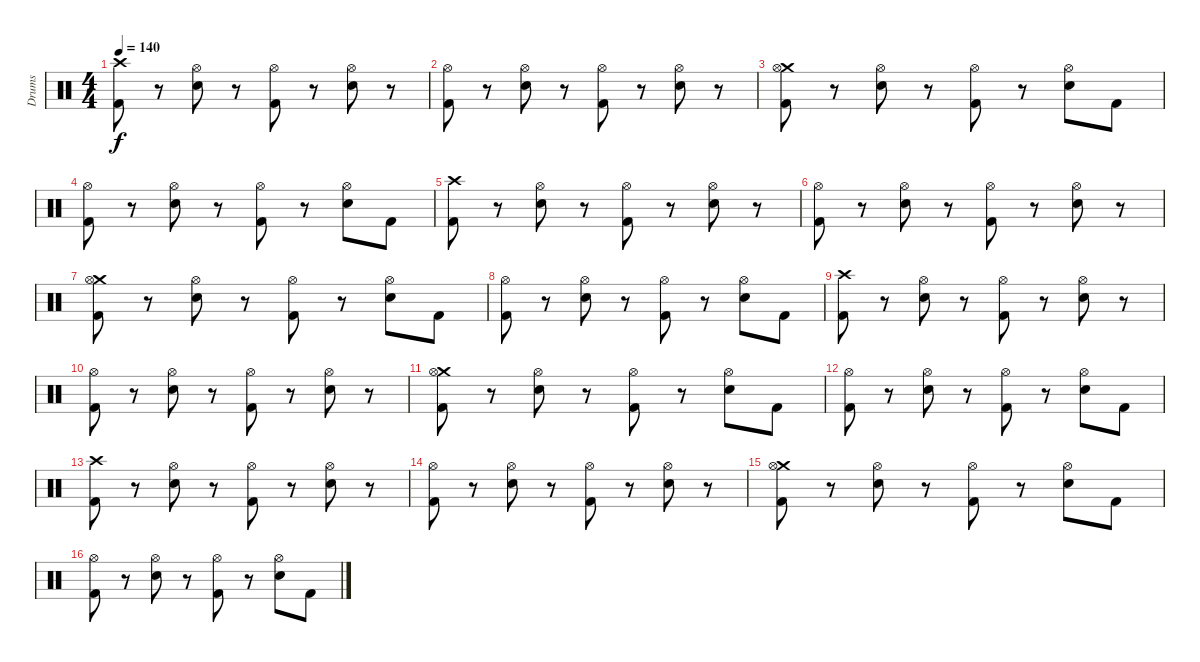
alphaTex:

\track ("Drums" "Drums") {instrument percussion}
\staff {score}
\articulation defaults
\ts (4 4)
\tempo 140
\clef neutral
\ks c
("Crash high (hit)" "Kick (hit) 2").8{dy f} r.8 ("Snare (hit) 2" "Hi-Hat (open)").8 r.8 ("Hi-Hat (open)" "Kick (hit) 2").8 r.8 ("Snare (hit) 2" "Hi-Hat (open)").8 r.8 |
("Hi-Hat (open)" "Kick (hit) 2").8 r.8 ("Snare (hit) 2" "Hi-Hat (open)").8 r.8 ("Hi-Hat (open)" "Kick (hit) 2").8 r.8 ("Snare (hit) 2" "Hi-Hat (open)").8 r.8 |
("Crash medium (hit)" "Hi-Hat (open)" "Kick (hit) 2").8 r.8 ("Snare (hit) 2" "Hi-Hat (open)").8 r.8 ("Hi-Hat (open)" "Kick (hit) 2").8 r.8 ("Snare (hit) 2" "Hi-Hat (open)").8 "Kick (hit) 2".8 |
("Hi-Hat (open)" "Kick (hit) 2").8 r.8 ("Snare (hit) 2" "Hi-Hat (open)").8 r.8 ("Hi-Hat (open)" "Kick (hit) 2").8 r.8 ("Snare (hit) 2" "Hi-Hat (open)").8 "Kick (hit) 2".8 |
("Crash high (hit)" "Kick (hit) 2").8 r.8 ("Snare (hit) 2" "Hi-Hat (open)").8 r.8 ("Hi-Hat (open)" "Kick (hit) 2").8 r.8 ("Snare (hit) 2" "Hi-Hat (open)").8 r.8 |
("Hi-Hat (open)" "Kick (hit) 2").8 r.8 ("Snare (hit) 2" "Hi-Hat (open)").8 r.8 ("Hi-Hat (open)" "Kick (hit) 2").8 r.8 ("Snare (hit) 2" "Hi-Hat (open)").8 r.8 |
("Crash medium (hit)" "Hi-Hat (open)" "Kick (hit) 2").8 r.8 ("Snare (hit) 2" "Hi-Hat (open)").8 r.8 ("Hi-Hat (open)" "Kick (hit) 2").8 r.8 ("Snare (hit) 2" "Hi-Hat (open)").8 "Kick (hit) 2".8 |
("Hi-Hat (open)" "Kick (hit) 2").8 r.8 ("Snare (hit) 2" "Hi-Hat (open)").8 r.8 ("Hi-Hat (open)" "Kick (hit) 2").8 r.8 ("Snare (hit) 2" "Hi-Hat (open)").8 "Kick (hit) 2".8 |
("Crash high (hit)" "Kick (hit) 2").8 r.8 ("Snare (hit) 2" "Hi-Hat (open)").8 r.8 ("Hi-Hat (open)" "Kick (hit) 2").8 r.8 ("Snare (hit) 2" "Hi-Hat (open)").8 r.8 |
("Hi-Hat (open)" "Kick (hit) 2").8 r.8 ("Snare (hit) 2" "Hi-Hat (open)").8 r.8 ("Hi-Hat (open)" "Kick (hit) 2").8 r.8 ("Snare (hit) 2" "Hi-Hat (open)").8 r.8 |
("Crash medium (hit)" "Hi-Hat (open)" "Kick (hit) 2").8 r.8 ("Snare (hit) 2" "Hi-Hat (open)").8 r.8 ("Hi-Hat (open)" "Kick (hit) 2").8 r.8 ("Snare (hit) 2" "Hi-Hat (open)").8 "Kick (hit) 2".8 |
("Hi-Hat (open)" "Kick (hit) 2").8 r.8 ("Snare (hit) 2" "Hi-Hat (open)").8 r.8 ("Hi-Hat (open)" "Kick (hit) 2").8 r.8 ("Snare (hit) 2" "Hi-Hat (open)").8 "Kick (hit) 2".8 |
("Crash high (hit)" "Kick (hit) 2").8 r.8 ("Snare (hit) 2" "Hi-Hat (open)").8 r.8 ("Hi-Hat (open)" "Kick (hit) 2").8 r.8 ("Snare (hit) 2" "Hi-Hat (open)").8 r.8 |
("Hi-Hat (open)" "Kick (hit) 2").8 r.8 ("Snare (hit) 2" "Hi-Hat (open)").8 r.8 ("Hi-Hat (open)" "Kick (hit) 2").8 r.8 ("Snare (hit) 2" "Hi-Hat (open)").8 r.8 |
("Crash medium (hit)" "Hi-Hat (open)" "Kick (hit) 2").8 r.8 ("Snare (hit) 2" "Hi-Hat (open)").8 r.8 ("Hi-Hat (open)" "Kick (hit) 2").8 r.8 ("Snare (hit) 2" "Hi-Hat (open)").8 "Kick (hit) 2".8 |
("Hi-Hat (open)" "Kick (hit) 2").8 r.8 ("Snare (hit) 2" "Hi-Hat (open)").8 r.8 ("Hi-Hat (open)" "Kick (hit) 2").8 r.8 ("Snare (hit) 2" "Hi-Hat (open)").8 "Kick (hit) 2".8
